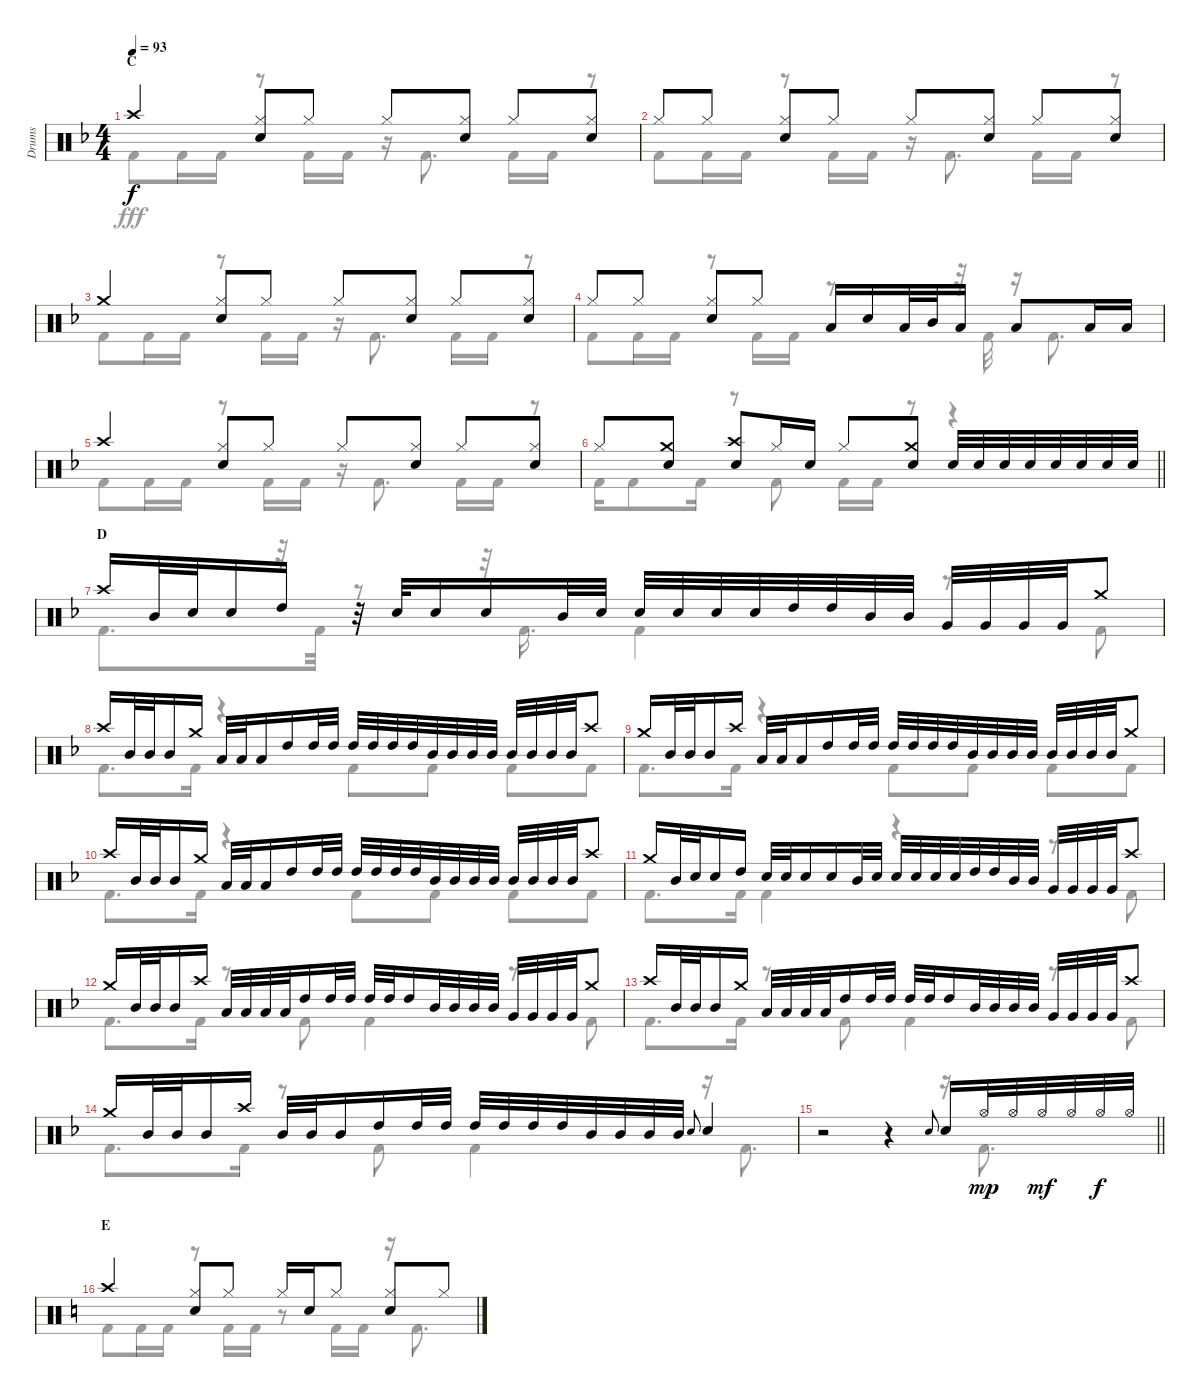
\track ("Drums" "Drums") {instrument percussion}
\staff {score}
\articulation defaults
\voice
\ts (4 4)
\section ("" "C")
\tempo 93
\clef neutral
\ks f "Crash high (hit)".4{dy f}
("Hi-Hat (closed)" "Snare (hit) 2").8 "Hi-Hat (closed)".8 "Hi-Hat (closed)".8 ("Hi-Hat (closed)" "Snare (hit) 2").8 "Hi-Hat (closed)".8 ("Hi-Hat (closed)" "Snare (hit) 2").8 |
"Hi-Hat (closed)".8 "Hi-Hat (closed)".8 ("Hi-Hat (closed)" "Snare (hit) 2").8 "Hi-Hat (closed)".8 "Hi-Hat (closed)".8 ("Hi-Hat (closed)" "Snare (hit) 2").8 "Hi-Hat (closed)".8 ("Hi-Hat (closed)" "Snare (hit) 2").8 |
"Crash medium (hit)".4 ("Hi-Hat (closed)" "Snare (hit) 2").8 "Hi-Hat (closed)".8 "Hi-Hat (closed)".8 ("Hi-Hat (closed)" "Snare (hit) 2").8 "Hi-Hat (closed)".8 ("Hi-Hat (closed)" "Snare (hit) 2").8 |
"Hi-Hat (closed)".8 "Hi-Hat (closed)".8 ("Hi-Hat (closed)" "Snare (hit) 2").8 "Hi-Hat (closed)".8 "Low Tom (hit)".16 "Snare (hit) 2".16 "Low Tom (hit)".32 "Mid Tom (hit)".32 "Low Tom (hit)".16 "Low Tom (hit)".8 "Low Tom (hit)".16 "Low Tom (hit)".16 |
"Crash high (hit)".4 ("Hi-Hat (closed)" "Snare (hit) 2").8 "Hi-Hat (closed)".8 "Hi-Hat (closed)".8 ("Hi-Hat (closed)" "Snare (hit) 2").8 "Hi-Hat (closed)".8 ("Hi-Hat (closed)" "Snare (hit) 2").8 |
\barLineRight lightlight "Hi-Hat (closed)".8
("Crash medium (hit)" "Snare (hit) 2").8 ("Crash high (hit)" "Snare (hit) 2").8 "Hi-Hat (closed)".16 "Snare (hit) 2".16 "Hi-Hat (closed)".8 ("Crash medium (hit)" "Snare (hit) 2").8 "Snare (hit) 2".32 "Snare (hit) 2".32 "Snare (hit) 2".32 "Snare (hit) 2".32 "Snare (hit) 2".32 "Snare (hit) 2".32 "Snare (hit) 2".32 "Snare (hit) 2".32 |
\section ("" "D")
"Crash high (hit)".16 "Mid Tom (hit)".32 "Snare (hit) 2".32 "Snare (hit) 2".16 "High Tom (hit)".16 r.32 "Snare (hit) 2".32 "Snare (hit) 2".16 "Snare (hit) 2".16 "Mid Tom (hit)".32 "Snare (hit) 2".32 "Snare (hit) 2".32 "Snare (hit) 2".32 "Snare (hit) 2".32 "Snare (hit) 2".32 "High Tom (hit)".32 "High Tom (hit)".32 "Mid Tom (hit)".32 "Mid Tom (hit)".32 "Very Low Tom (hit)".32 "Very Low Tom (hit)".32 "Very Low Tom (hit)".32 "Very Low Tom (hit)".32 "Crash medium (hit)".8 |
"Crash high (hit)".16 "Mid Tom (hit)".32 "Mid Tom (hit)".32 "Mid Tom (hit)".16 "Crash medium (hit)".16 "Low Tom (hit)".32 "Low Tom (hit)".32 "Low Tom (hit)".16 "High Tom (hit)".16 "High Tom (hit)".32 "High Tom (hit)".32 "High Tom (hit)".32 "High Tom (hit)".32 "High Tom (hit)".32 "High Tom (hit)".32 "Mid Tom (hit)".32 "Mid Tom (hit)".32 "Mid Tom (hit)".32 "Mid Tom (hit)".32 "Mid Tom (hit)".32 "Mid Tom (hit)".32 "Mid Tom (hit)".32 "Mid Tom (hit)".32 "Crash high (hit)".8 |
"Crash medium (hit)".16 "Mid Tom (hit)".32 "Mid Tom (hit)".32 "Mid Tom (hit)".16 "Crash high (hit)".16 "Low Tom (hit)".32 "Low Tom (hit)".32 "Low Tom (hit)".16 "High Tom (hit)".16 "High Tom (hit)".32 "High Tom (hit)".32 "High Tom (hit)".32 "High Tom (hit)".32 "High Tom (hit)".32 "High Tom (hit)".32 "Mid Tom (hit)".32 "Mid Tom (hit)".32 "Mid Tom (hit)".32 "Mid Tom (hit)".32 "Mid Tom (hit)".32 "Mid Tom (hit)".32 "Mid Tom (hit)".32 "Mid Tom (hit)".32 "Crash medium (hit)".8 |
"Crash high (hit)".16 "Mid Tom (hit)".32 "Mid Tom (hit)".32 "Mid Tom (hit)".16 "Crash medium (hit)".16 "Low Tom (hit)".32 "Low Tom (hit)".32 "Low Tom (hit)".16 "High Tom (hit)".16 "High Tom (hit)".32 "High Tom (hit)".32 "High Tom (hit)".32 "High Tom (hit)".32 "High Tom (hit)".32 "High Tom (hit)".32 "Mid Tom (hit)".32 "Mid Tom (hit)".32 "Mid Tom (hit)".32 "Mid Tom (hit)".32 "Mid Tom (hit)".32 "Mid Tom (hit)".32 "Mid Tom (hit)".32 "Mid Tom (hit)".32 "Crash high (hit)".8 |
"Crash medium (hit)".16 "Mid Tom (hit)".32 "Snare (hit) 2".32 "Snare (hit) 2".16 "High Tom (hit)".16 "Snare (hit) 2".32 "Snare (hit) 2".32 "Snare (hit) 2".16 "Snare (hit) 2".16 "Mid Tom (hit)".32 "Snare (hit) 2".32 "Snare (hit) 2".32 "Snare (hit) 2".32 "Snare (hit) 2".32 "Snare (hit) 2".32 "High Tom (hit)".32 "High Tom (hit)".32 "Mid Tom (hit)".32 "Mid Tom (hit)".32 "Very Low Tom (hit)".32 "Very Low Tom (hit)".32 "Very Low Tom (hit)".32 "Very Low Tom (hit)".32 "Crash high (hit)".8 |
"Crash medium (hit)".16 "Mid Tom (hit)".32 "Mid Tom (hit)".32 "Mid Tom (hit)".16 "Crash high (hit)".16 "Low Tom (hit)".32 "Low Tom (hit)".32 "Low Tom (hit)".32 "Low Tom (hit)".32 "High Tom (hit)".16 "High Tom (hit)".32 "High Tom (hit)".32 "High Tom (hit)".32 "High Tom (hit)".32 "High Tom (hit)".16 "Mid Tom (hit)".32 "Mid Tom (hit)".32 "Mid Tom (hit)".32 "Mid Tom (hit)".32 "Very Low Tom (hit)".32 "Very Low Tom (hit)".32 "Very Low Tom (hit)".32 "Very Low Tom (hit)".32 "Crash medium (hit)".8 |
"Crash high (hit)".16 "Mid Tom (hit)".32 "Mid Tom (hit)".32 "Mid Tom (hit)".16 "Crash medium (hit)".16 "Low Tom (hit)".32 "Low Tom (hit)".32 "Low Tom (hit)".32 "Low Tom (hit)".32 "High Tom (hit)".16 "High Tom (hit)".32 "High Tom (hit)".32 "High Tom (hit)".32 "High Tom (hit)".32 "High Tom (hit)".16 "Mid Tom (hit)".32 "Mid Tom (hit)".32 "Mid Tom (hit)".32 "Mid Tom (hit)".32 "Very Low Tom (hit)".32 "Very Low Tom (hit)".32 "Very Low Tom (hit)".32 "Very Low Tom (hit)".32 "Crash high (hit)".8 |
"Crash medium (hit)".16 "Mid Tom (hit)".32 "Mid Tom (hit)".32 "Mid Tom (hit)".16 "Crash high (hit)".16 "Mid Tom (hit)".32 "Mid Tom (hit)".32 "Mid Tom (hit)".16 "High Tom (hit)".16 "High Tom (hit)".32 "High Tom (hit)".32 "High Tom (hit)".32 "High Tom (hit)".32 "High Tom (hit)".32 "High Tom (hit)".32 "Mid Tom (hit)".32 "Mid Tom (hit)".32 "Mid Tom (hit)".32 "Mid Tom (hit)".32 "Snare (hit) 2".8{gr onbeat} "Snare (hit) 2".4 |
\barLineRight lightlight
r.2 r.4 "Snare (hit) 2".8{gr onbeat} "Snare (hit) 2".16 "Hi-Hat (open)".32{dy mp} "Hi-Hat (open)".32 "Hi-Hat (open)".32{dy mf} "Hi-Hat (open)".32 "Hi-Hat (open)".32{dy f} "Hi-Hat (open)".32 |
\section ("" "E")
\ks c "Crash high (hit)".4
("Hi-Hat (closed)" "Snare (hit) 2").8 "Hi-Hat (closed)".8 "Hi-Hat (closed)".16 "Snare (hit) 2".16 "Hi-Hat (closed)".8 ("Hi-Hat (closed)" "Snare (hit) 2").8 "Hi-Hat (closed)".8
\voice
\clef neutral
\ottava regular
\simile none
\ks f "Kick (hit) 2".8{dy fff} "Kick (hit) 2".16 "Kick (hit) 2".16
r.8 "Kick (hit) 2".16 "Kick (hit) 2".16 r.16 "Kick (hit) 2".8{d} "Kick (hit) 2".16 "Kick (hit) 2".16 r.8 |
"Kick (hit) 2".8 "Kick (hit) 2".16 "Kick (hit) 2".16 r.8 "Kick (hit) 2".16 "Kick (hit) 2".16 r.16 "Kick (hit) 2".8{d} "Kick (hit) 2".16 "Kick (hit) 2".16 r.8 |
"Kick (hit) 2".8 "Kick (hit) 2".16 "Kick (hit) 2".16 r.8 "Kick (hit) 2".16 "Kick (hit) 2".16 r.16 "Kick (hit) 2".8{d} "Kick (hit) 2".16 "Kick (hit) 2".16 r.8 |
"Kick (hit) 2".8 "Kick (hit) 2".16 "Kick (hit) 2".16 r.8 "Kick (hit) 2".16 "Kick (hit) 2".16 r.8{d} r.32 "Kick (hit) 2".32 r.16 "Kick (hit) 2".8{d} |
"Kick (hit) 2".8 "Kick (hit) 2".16 "Kick (hit) 2".16 r.8 "Kick (hit) 2".16 "Kick (hit) 2".16 r.16 "Kick (hit) 2".8{d} "Kick (hit) 2".16 "Kick (hit) 2".16 r.8 |
\barLineRight lightlight "Kick (hit) 2".16 "Kick (hit) 2".8 "Kick (hit) 2".16
r.8 "Kick (hit) 2".8 "Kick (hit) 2".16 "Kick (hit) 2".16 r.8 r.4 |
"Kick (hit) 2".8{d} r.32 "Kick (hit) 2".32 r.8 r.32 "Kick (hit) 2".16{d} "Kick (hit) 2".4 r.8 "Kick (hit) 2".8 |
"Kick (hit) 2".8{d} "Kick (hit) 2".16 r.4 "Kick (hit) 2".8 "Kick (hit) 2".8 "Kick (hit) 2".8 "Kick (hit) 2".8 |
"Kick (hit) 2".8{d} "Kick (hit) 2".16 r.4 "Kick (hit) 2".8 "Kick (hit) 2".8 "Kick (hit) 2".8 "Kick (hit) 2".8 |
"Kick (hit) 2".8{d} "Kick (hit) 2".16 r.4 "Kick (hit) 2".8 "Kick (hit) 2".8 "Kick (hit) 2".8 "Kick (hit) 2".8 |
"Kick (hit) 2".8{d} "Kick (hit) 2".16 "Kick (hit) 2".4 r.4 r.8 "Kick (hit) 2".8 |
"Kick (hit) 2".8{d} "Kick (hit) 2".16 r.8 "Kick (hit) 2".8 "Kick (hit) 2".4 r.8 "Kick (hit) 2".8 |
"Kick (hit) 2".8{d} "Kick (hit) 2".16 r.8 "Kick (hit) 2".8 "Kick (hit) 2".4 r.8 "Kick (hit) 2".8 |
"Kick (hit) 2".8{d} "Kick (hit) 2".16 r.8 "Kick (hit) 2".8 "Kick (hit) 2".4 r.16 "Kick (hit) 2".8{d} |
\barLineRight lightlight
r.2 r.4 r.16 "Kick (hit) 2".8{d} |
\ks c "Kick (hit) 2".8 "Kick (hit) 2".16 "Kick (hit) 2".16
r.8 "Kick (hit) 2".16 "Kick (hit) 2".16 r.8 "Kick (hit) 2".16 "Kick (hit) 2".16 r.16 "Kick (hit) 2".8{d}
